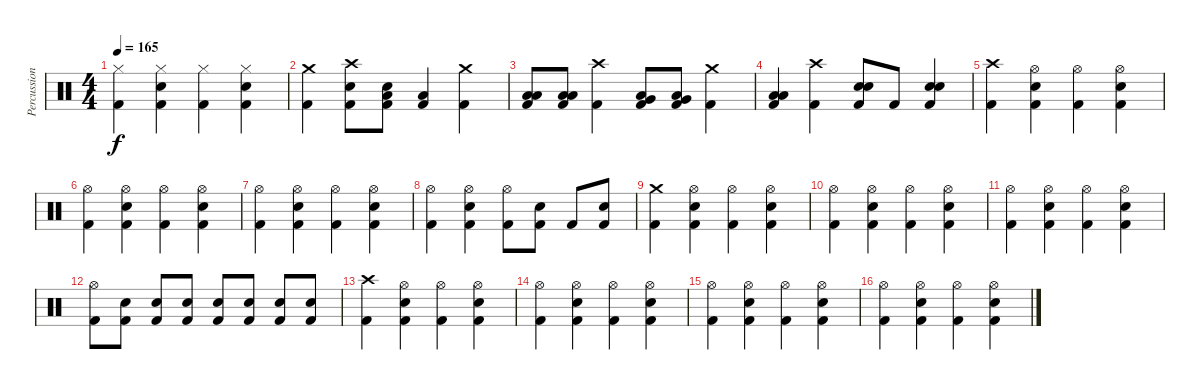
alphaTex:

\track ("Percussions" "Percussion") {instrument percussion}
\staff {score}
\articulation defaults
\ts (4 4)
\tempo 165
\clef neutral
\ks c
("Hi-Hat (closed)" "Kick (hit) 2").4{dy f} ("Hi-Hat (closed)" "Electric Snare (hit)" "Kick (hit) 2").4 ("Hi-Hat (closed)" "Kick (hit) 2").4 ("Hi-Hat (closed)" "Electric Snare (hit)" "Kick (hit) 2").4 |
("Crash medium (hit)" "Kick (hit) 2").4 ("Crash high (hit)" "Electric Snare (hit)" "Kick (hit) 2").8 ("Electric Snare (hit)" "Low Floor Tom (hit)" "Kick (hit) 2").8 ("Low Floor Tom (hit)" "Kick (hit) 2").4 ("Crash medium (hit)" "Kick (hit) 2").4 |
("Low Tom (hit)" "Low Floor Tom (hit)" "Kick (hit) 2").8 ("Low Tom (hit)" "Low Floor Tom (hit)" "Kick (hit) 2").8 ("Crash high (hit)" "Kick (hit) 2").4 ("Very Low Tom (hit)" "Low Floor Tom (hit)" "Kick (hit) 2").8 ("Very Low Tom (hit)" "Low Floor Tom (hit)" "Kick (hit) 2").8 ("Crash medium (hit)" "Kick (hit) 2").4 |
("Low Floor Tom (hit)" "Low Floor Tom (hit)" "Kick (hit) 2").4 ("Crash high (hit)" "Kick (hit) 2").4 ("Electric Snare (hit)" "Electric Snare (hit)" "Kick (hit) 2").8 "Kick (hit) 2".8 ("Electric Snare (hit)" "Electric Snare (hit)" "Kick (hit) 2").4 |
("Crash high (hit)" "Kick (hit) 2").4 ("Hi-Hat (open)" "Electric Snare (hit)" "Kick (hit) 2").4 ("Hi-Hat (open)" "Kick (hit) 2").4 ("Hi-Hat (open)" "Electric Snare (hit)" "Kick (hit) 2").4 |
("Hi-Hat (open)" "Kick (hit) 2").4 ("Hi-Hat (open)" "Electric Snare (hit)" "Kick (hit) 2").4 ("Hi-Hat (open)" "Kick (hit) 2").4 ("Hi-Hat (open)" "Electric Snare (hit)" "Kick (hit) 2").4 |
("Hi-Hat (open)" "Kick (hit) 2").4 ("Hi-Hat (open)" "Electric Snare (hit)" "Kick (hit) 2").4 ("Hi-Hat (open)" "Kick (hit) 2").4 ("Hi-Hat (open)" "Electric Snare (hit)" "Kick (hit) 2").4 |
("Hi-Hat (open)" "Kick (hit) 2").4 ("Hi-Hat (open)" "Electric Snare (hit)" "Kick (hit) 2").4 ("Hi-Hat (open)" "Kick (hit) 2").8 ("Electric Snare (hit)" "Kick (hit) 2").8 "Kick (hit) 2".8 ("Electric Snare (hit)" "Kick (hit) 2").8 |
("Crash medium (hit)" "Kick (hit) 2").4 ("Hi-Hat (open)" "Electric Snare (hit)" "Kick (hit) 2").4 ("Hi-Hat (open)" "Kick (hit) 2").4 ("Hi-Hat (open)" "Electric Snare (hit)" "Kick (hit) 2").4 |
("Hi-Hat (open)" "Kick (hit) 2").4 ("Hi-Hat (open)" "Electric Snare (hit)" "Kick (hit) 2").4 ("Hi-Hat (open)" "Kick (hit) 2").4 ("Hi-Hat (open)" "Electric Snare (hit)" "Kick (hit) 2").4 |
("Hi-Hat (open)" "Kick (hit) 2").4 ("Hi-Hat (open)" "Electric Snare (hit)" "Kick (hit) 2").4 ("Hi-Hat (open)" "Kick (hit) 2").4 ("Hi-Hat (open)" "Electric Snare (hit)" "Kick (hit) 2").4 |
("Hi-Hat (open)" "Kick (hit) 2").8 ("Electric Snare (hit)" "Kick (hit) 2").8 ("Electric Snare (hit)" "Kick (hit) 2").8 ("Electric Snare (hit)" "Kick (hit) 2").8 ("Electric Snare (hit)" "Kick (hit) 2").8 ("Electric Snare (hit)" "Kick (hit) 2").8 ("Electric Snare (hit)" "Kick (hit) 2").8 ("Electric Snare (hit)" "Kick (hit) 2").8 |
("Crash high (hit)" "Kick (hit) 2").4 ("Hi-Hat (open)" "Electric Snare (hit)" "Kick (hit) 2").4 ("Hi-Hat (open)" "Kick (hit) 2").4 ("Hi-Hat (open)" "Electric Snare (hit)" "Kick (hit) 2").4 |
("Hi-Hat (open)" "Kick (hit) 2").4 ("Hi-Hat (open)" "Electric Snare (hit)" "Kick (hit) 2").4 ("Hi-Hat (open)" "Kick (hit) 2").4 ("Hi-Hat (open)" "Electric Snare (hit)" "Kick (hit) 2").4 |
("Hi-Hat (open)" "Kick (hit) 2").4 ("Hi-Hat (open)" "Electric Snare (hit)" "Kick (hit) 2").4 ("Hi-Hat (open)" "Kick (hit) 2").4 ("Hi-Hat (open)" "Electric Snare (hit)" "Kick (hit) 2").4 |
("Hi-Hat (open)" "Kick (hit) 2").4 ("Hi-Hat (open)" "Electric Snare (hit)" "Kick (hit) 2").4 ("Hi-Hat (open)" "Kick (hit) 2").4 ("Hi-Hat (open)" "Electric Snare (hit)" "Kick (hit) 2").4
